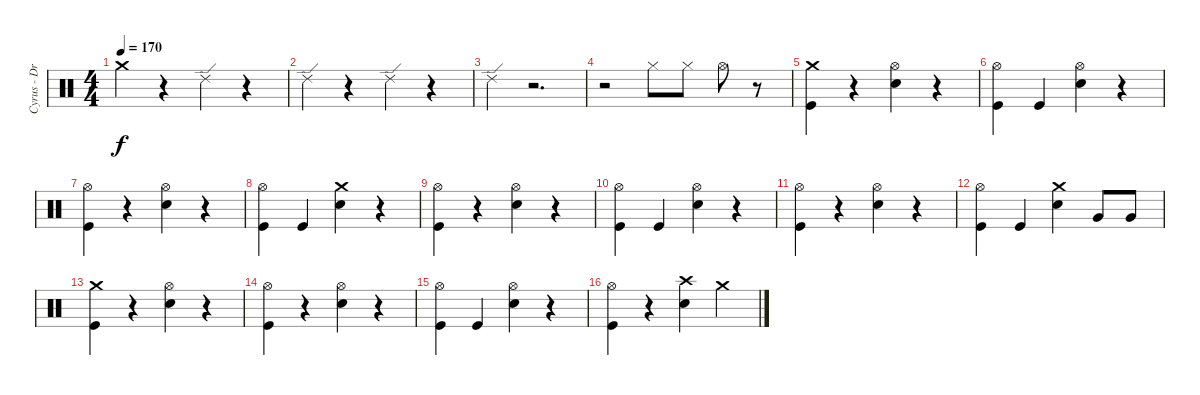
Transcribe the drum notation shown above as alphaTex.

\track ("Cyrus - Drums" "Cyrus - Dr") {instrument percussion}
\staff {score}
\articulation defaults
\ts (4 4)
\tempo 170
\clef neutral
\ks c "Crash medium (hit)".4{dy f}
r.4 "Ride (edge) 2".4 r.4 |
"Ride (edge) 2".4 r.4 "Ride (edge) 2".4 r.4 |
"Ride (edge) 2".4 r.2{d} |
r.2 "Hi-Hat (closed)".8 "Hi-Hat (closed)".8 "Hi-Hat (open)".8 r.8 |
("Crash medium (hit)" "Kick (hit)").4 r.4 ("Hi-Hat (open)" "Electric Snare (hit)").4 r.4 |
("Hi-Hat (open)" "Kick (hit)").4 "Kick (hit)".4 ("Hi-Hat (open)" "Electric Snare (hit)").4 r.4 |
("Hi-Hat (open)" "Kick (hit)").4 r.4 ("Hi-Hat (open)" "Electric Snare (hit)").4 r.4 |
("Hi-Hat (open)" "Kick (hit)").4 "Kick (hit)".4 ("Crash medium (hit)" "Electric Snare (hit)").4 r.4 |
("Hi-Hat (open)" "Kick (hit)").4 r.4 ("Hi-Hat (open)" "Electric Snare (hit)").4 r.4 |
("Hi-Hat (open)" "Kick (hit)").4 "Kick (hit)".4 ("Hi-Hat (open)" "Electric Snare (hit)").4 r.4 |
("Hi-Hat (open)" "Kick (hit)").4 r.4 ("Hi-Hat (open)" "Electric Snare (hit)").4 r.4 |
("Hi-Hat (open)" "Kick (hit)").4 "Kick (hit)".4 ("Crash medium (hit)" "Electric Snare (hit)").4 "Very Low Tom (hit)".8 "Very Low Tom (hit)".8 |
("Crash medium (hit)" "Kick (hit)").4 r.4 ("Hi-Hat (open)" "Electric Snare (hit)").4 r.4 |
("Hi-Hat (open)" "Kick (hit)").4 r.4 ("Hi-Hat (open)" "Electric Snare (hit)").4 r.4 |
("Hi-Hat (open)" "Kick (hit)").4 "Kick (hit)".4 ("Hi-Hat (open)" "Electric Snare (hit)").4 r.4 |
("Hi-Hat (open)" "Kick (hit)").4 r.4 ("Crash high (hit)" "Electric Snare (hit)").4 "Crash medium (hit)".4
